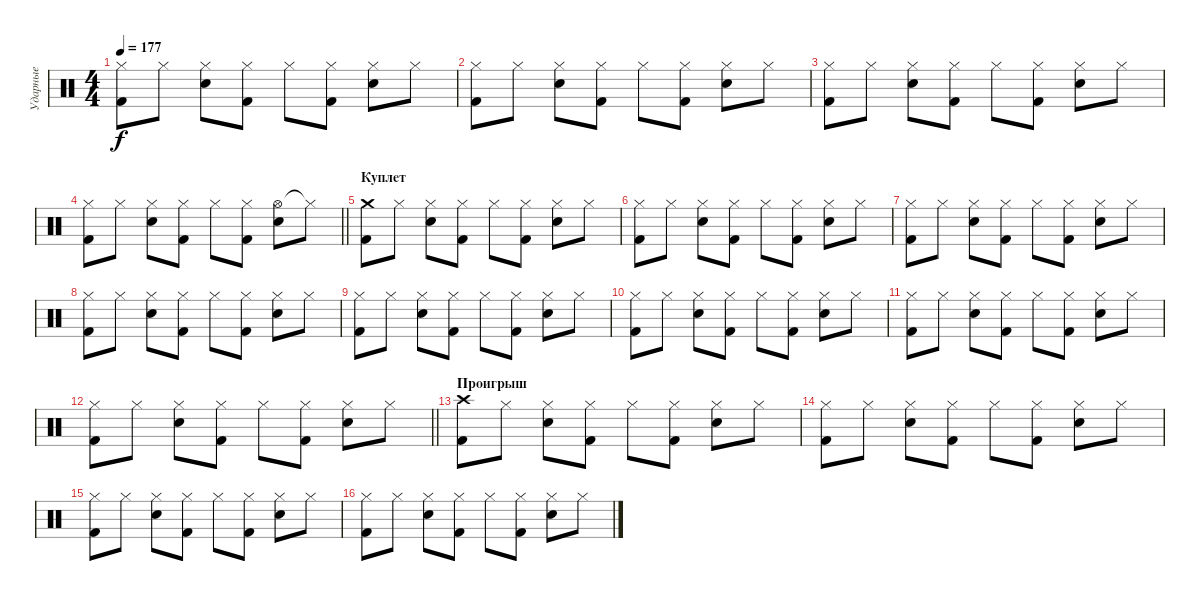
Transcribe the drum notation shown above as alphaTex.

\track ("Ударные" "Ударные") {instrument percussion}
\staff {score}
\articulation defaults
\ts (4 4)
\tempo 177
\clef neutral
\ks c
("Hi-Hat (closed)" "Kick (hit) 2").8{dy f} "Hi-Hat (closed)".8 ("Hi-Hat (closed)" "Snare (hit) 2").8 ("Hi-Hat (closed)" "Kick (hit) 2").8 "Hi-Hat (closed)".8 ("Hi-Hat (closed)" "Kick (hit) 2").8 ("Hi-Hat (closed)" "Snare (hit) 2").8 "Hi-Hat (closed)".8 |
("Hi-Hat (closed)" "Kick (hit) 2").8 "Hi-Hat (closed)".8 ("Hi-Hat (closed)" "Snare (hit) 2").8 ("Hi-Hat (closed)" "Kick (hit) 2").8 "Hi-Hat (closed)".8 ("Hi-Hat (closed)" "Kick (hit) 2").8 ("Hi-Hat (closed)" "Snare (hit) 2").8 "Hi-Hat (closed)".8 |
("Hi-Hat (closed)" "Kick (hit) 2").8 "Hi-Hat (closed)".8 ("Hi-Hat (closed)" "Snare (hit) 2").8 ("Hi-Hat (closed)" "Kick (hit) 2").8 "Hi-Hat (closed)".8 ("Hi-Hat (closed)" "Kick (hit) 2").8 ("Hi-Hat (closed)" "Snare (hit) 2").8 "Hi-Hat (closed)".8 |
\barLineRight lightlight
("Hi-Hat (closed)" "Kick (hit) 2").8 "Hi-Hat (closed)".8 ("Hi-Hat (closed)" "Snare (hit) 2").8 ("Hi-Hat (closed)" "Kick (hit) 2").8 "Hi-Hat (closed)".8 ("Hi-Hat (closed)" "Kick (hit) 2").8 ("Hi-Hat (open)" "Snare (hit) 2").8 "Hi-Hat (closed)"{t}.8 |
\section ("" "Куплет")
("Crash medium (hit)" "Kick (hit) 2").8 "Hi-Hat (closed)".8 ("Hi-Hat (closed)" "Snare (hit) 2").8 ("Hi-Hat (closed)" "Kick (hit) 2").8 "Hi-Hat (closed)".8 ("Hi-Hat (closed)" "Kick (hit) 2").8 ("Hi-Hat (closed)" "Snare (hit) 2").8 "Hi-Hat (closed)".8 |
("Hi-Hat (closed)" "Kick (hit) 2").8 "Hi-Hat (closed)".8 ("Hi-Hat (closed)" "Snare (hit) 2").8 ("Hi-Hat (closed)" "Kick (hit) 2").8 "Hi-Hat (closed)".8 ("Hi-Hat (closed)" "Kick (hit) 2").8 ("Hi-Hat (closed)" "Snare (hit) 2").8 "Hi-Hat (closed)".8 |
("Hi-Hat (closed)" "Kick (hit) 2").8 "Hi-Hat (closed)".8 ("Hi-Hat (closed)" "Snare (hit) 2").8 ("Hi-Hat (closed)" "Kick (hit) 2").8 "Hi-Hat (closed)".8 ("Hi-Hat (closed)" "Kick (hit) 2").8 ("Hi-Hat (closed)" "Snare (hit) 2").8 "Hi-Hat (closed)".8 |
("Hi-Hat (closed)" "Kick (hit) 2").8 "Hi-Hat (closed)".8 ("Hi-Hat (closed)" "Snare (hit) 2").8 ("Hi-Hat (closed)" "Kick (hit) 2").8 "Hi-Hat (closed)".8 ("Hi-Hat (closed)" "Kick (hit) 2").8 ("Hi-Hat (closed)" "Snare (hit) 2").8 "Hi-Hat (closed)".8 |
("Hi-Hat (closed)" "Kick (hit) 2").8 "Hi-Hat (closed)".8 ("Hi-Hat (closed)" "Snare (hit) 2").8 ("Hi-Hat (closed)" "Kick (hit) 2").8 "Hi-Hat (closed)".8 ("Hi-Hat (closed)" "Kick (hit) 2").8 ("Hi-Hat (closed)" "Snare (hit) 2").8 "Hi-Hat (closed)".8 |
("Hi-Hat (closed)" "Kick (hit) 2").8 "Hi-Hat (closed)".8 ("Hi-Hat (closed)" "Snare (hit) 2").8 ("Hi-Hat (closed)" "Kick (hit) 2").8 "Hi-Hat (closed)".8 ("Hi-Hat (closed)" "Kick (hit) 2").8 ("Hi-Hat (closed)" "Snare (hit) 2").8 "Hi-Hat (closed)".8 |
("Hi-Hat (closed)" "Kick (hit) 2").8 "Hi-Hat (closed)".8 ("Hi-Hat (closed)" "Snare (hit) 2").8 ("Hi-Hat (closed)" "Kick (hit) 2").8 "Hi-Hat (closed)".8 ("Hi-Hat (closed)" "Kick (hit) 2").8 ("Hi-Hat (closed)" "Snare (hit) 2").8 "Hi-Hat (closed)".8 |
\barLineRight lightlight
("Hi-Hat (closed)" "Kick (hit) 2").8 "Hi-Hat (closed)".8 ("Hi-Hat (closed)" "Snare (hit) 2").8 ("Hi-Hat (closed)" "Kick (hit) 2").8 "Hi-Hat (closed)".8 ("Hi-Hat (closed)" "Kick (hit) 2").8 ("Hi-Hat (closed)" "Snare (hit) 2").8 "Hi-Hat (closed)".8 |
\section ("" "Проигрыш")
("Crash high (hit)" "Kick (hit) 2").8 "Hi-Hat (closed)".8 ("Hi-Hat (closed)" "Snare (hit) 2").8 ("Hi-Hat (closed)" "Kick (hit) 2").8 "Hi-Hat (closed)".8 ("Hi-Hat (closed)" "Kick (hit) 2").8 ("Hi-Hat (closed)" "Snare (hit) 2").8 "Hi-Hat (closed)".8 |
("Hi-Hat (closed)" "Kick (hit) 2").8 "Hi-Hat (closed)".8 ("Hi-Hat (closed)" "Snare (hit) 2").8 ("Hi-Hat (closed)" "Kick (hit) 2").8 "Hi-Hat (closed)".8 ("Hi-Hat (closed)" "Kick (hit) 2").8 ("Hi-Hat (closed)" "Snare (hit) 2").8 "Hi-Hat (closed)".8 |
("Hi-Hat (closed)" "Kick (hit) 2").8 "Hi-Hat (closed)".8 ("Hi-Hat (closed)" "Snare (hit) 2").8 ("Hi-Hat (closed)" "Kick (hit) 2").8 "Hi-Hat (closed)".8 ("Hi-Hat (closed)" "Kick (hit) 2").8 ("Hi-Hat (closed)" "Snare (hit) 2").8 "Hi-Hat (closed)".8 |
("Hi-Hat (closed)" "Kick (hit) 2").8 "Hi-Hat (closed)".8 ("Hi-Hat (closed)" "Snare (hit) 2").8 ("Hi-Hat (closed)" "Kick (hit) 2").8 "Hi-Hat (closed)".8 ("Hi-Hat (closed)" "Kick (hit) 2").8 ("Hi-Hat (closed)" "Snare (hit) 2").8 "Hi-Hat (closed)".8
